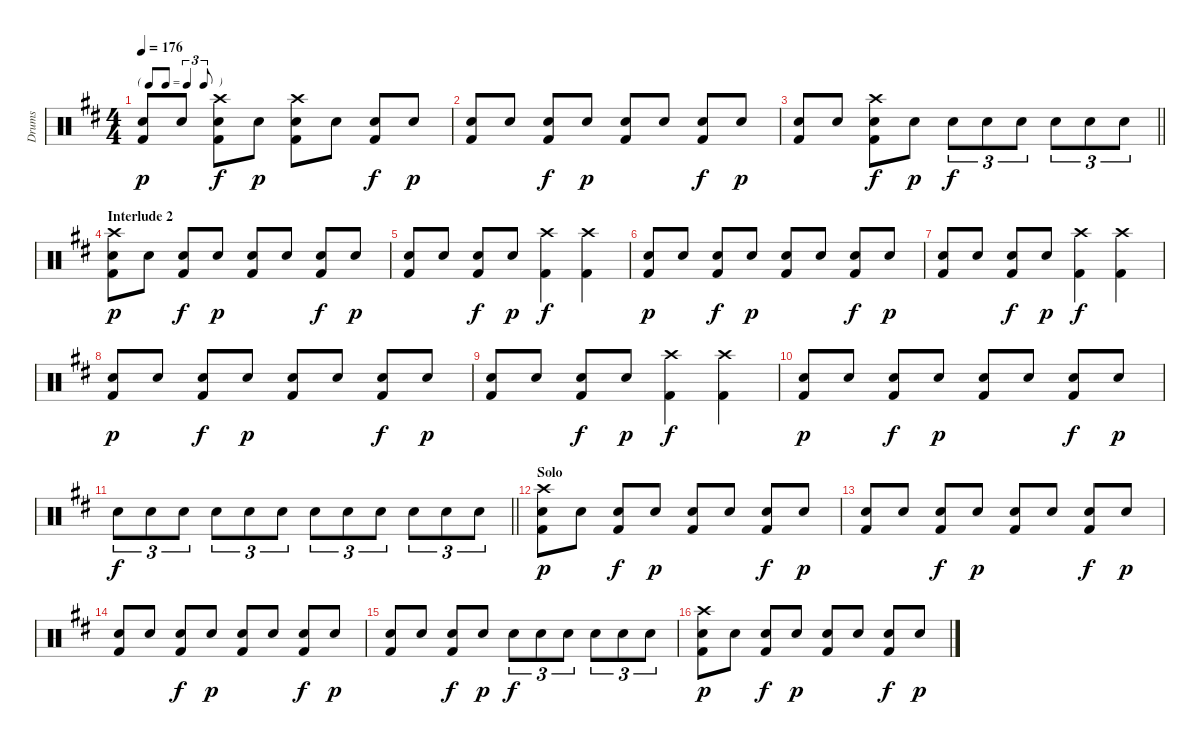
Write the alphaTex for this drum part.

\track ("Drums" "Drums") {instrument percussion}
\staff {score}
\articulation defaults
\ts (4 4)
\tf triplet8th
\tempo 176
\clef neutral
\ks d
("Snare (hit) 2" "Kick (hit) 2").8{dy p} "Snare (hit) 2".8 ("Crash high (hit)" "Snare (hit) 2" "Kick (hit) 2").8{dy f} "Snare (hit) 2".8{dy p} ("Crash high (hit)" "Snare (hit) 2" "Kick (hit) 2").8 "Snare (hit) 2".8 ("Snare (hit) 2" "Kick (hit) 2").8{dy f} "Snare (hit) 2".8{dy p} |
("Snare (hit) 2" "Kick (hit) 2").8 "Snare (hit) 2".8 ("Snare (hit) 2" "Kick (hit) 2").8{dy f} "Snare (hit) 2".8{dy p} ("Snare (hit) 2" "Kick (hit) 2").8 "Snare (hit) 2".8 ("Snare (hit) 2" "Kick (hit) 2").8{dy f} "Snare (hit) 2".8{dy p} |
\barLineRight lightlight
("Snare (hit) 2" "Kick (hit) 2").8 "Snare (hit) 2".8 ("Crash high (hit)" "Snare (hit) 2" "Kick (hit) 2").8{dy f} "Snare (hit) 2".8{dy p} "Snare (hit) 2".8{tu (3 2) dy f} "Snare (hit) 2".8{tu (3 2)} "Snare (hit) 2".8{tu (3 2)} "Snare (hit) 2".8{tu (3 2)} "Snare (hit) 2".8{tu (3 2)} "Snare (hit) 2".8{tu (3 2)} |
\section ("" "Interlude 2")
("Crash high (hit)" "Snare (hit) 2" "Kick (hit) 2").8{dy p} "Snare (hit) 2".8 ("Snare (hit) 2" "Kick (hit) 2").8{dy f} "Snare (hit) 2".8{dy p} ("Snare (hit) 2" "Kick (hit) 2").8 "Snare (hit) 2".8 ("Snare (hit) 2" "Kick (hit) 2").8{dy f} "Snare (hit) 2".8{dy p} |
("Snare (hit) 2" "Kick (hit) 2").8 "Snare (hit) 2".8 ("Snare (hit) 2" "Kick (hit) 2").8{dy f} "Snare (hit) 2".8{dy p} ("Crash high (hit)" "Kick (hit) 2").4{dy f} ("Crash high (hit)" "Kick (hit) 2").4 |
("Snare (hit) 2" "Kick (hit) 2").8{dy p} "Snare (hit) 2".8 ("Snare (hit) 2" "Kick (hit) 2").8{dy f} "Snare (hit) 2".8{dy p} ("Snare (hit) 2" "Kick (hit) 2").8 "Snare (hit) 2".8 ("Snare (hit) 2" "Kick (hit) 2").8{dy f} "Snare (hit) 2".8{dy p} |
("Snare (hit) 2" "Kick (hit) 2").8 "Snare (hit) 2".8 ("Snare (hit) 2" "Kick (hit) 2").8{dy f} "Snare (hit) 2".8{dy p} ("Crash high (hit)" "Kick (hit) 2").4{dy f} ("Crash high (hit)" "Kick (hit) 2").4 |
("Snare (hit) 2" "Kick (hit) 2").8{dy p} "Snare (hit) 2".8 ("Snare (hit) 2" "Kick (hit) 2").8{dy f} "Snare (hit) 2".8{dy p} ("Snare (hit) 2" "Kick (hit) 2").8 "Snare (hit) 2".8 ("Snare (hit) 2" "Kick (hit) 2").8{dy f} "Snare (hit) 2".8{dy p} |
("Snare (hit) 2" "Kick (hit) 2").8 "Snare (hit) 2".8 ("Snare (hit) 2" "Kick (hit) 2").8{dy f} "Snare (hit) 2".8{dy p} ("Crash high (hit)" "Kick (hit) 2").4{dy f} ("Crash high (hit)" "Kick (hit) 2").4 |
("Snare (hit) 2" "Kick (hit) 2").8{dy p} "Snare (hit) 2".8 ("Snare (hit) 2" "Kick (hit) 2").8{dy f} "Snare (hit) 2".8{dy p} ("Snare (hit) 2" "Kick (hit) 2").8 "Snare (hit) 2".8 ("Snare (hit) 2" "Kick (hit) 2").8{dy f} "Snare (hit) 2".8{dy p} |
\barLineRight lightlight "Snare (hit) 2".8{tu (3 2) dy f} "Snare (hit) 2".8{tu (3 2)} "Snare (hit) 2".8{tu (3 2)} "Snare (hit) 2".8{tu (3 2)} "Snare (hit) 2".8{tu (3 2)} "Snare (hit) 2".8{tu (3 2)} "Snare (hit) 2".8{tu (3 2)} "Snare (hit) 2".8{tu (3 2)} "Snare (hit) 2".8{tu (3 2)} "Snare (hit) 2".8{tu (3 2)} "Snare (hit) 2".8{tu (3 2)} "Snare (hit) 2".8{tu (3 2)}
|
\section ("" "Solo")
("Crash high (hit)" "Snare (hit) 2" "Kick (hit) 2").8{dy p} "Snare (hit) 2".8 ("Snare (hit) 2" "Kick (hit) 2").8{dy f} "Snare (hit) 2".8{dy p} ("Snare (hit) 2" "Kick (hit) 2").8 "Snare (hit) 2".8 ("Snare (hit) 2" "Kick (hit) 2").8{dy f} "Snare (hit) 2".8{dy p} |
("Snare (hit) 2" "Kick (hit) 2").8 "Snare (hit) 2".8 ("Snare (hit) 2" "Kick (hit) 2").8{dy f} "Snare (hit) 2".8{dy p} ("Snare (hit) 2" "Kick (hit) 2").8 "Snare (hit) 2".8 ("Snare (hit) 2" "Kick (hit) 2").8{dy f} "Snare (hit) 2".8{dy p} |
("Snare (hit) 2" "Kick (hit) 2").8 "Snare (hit) 2".8 ("Snare (hit) 2" "Kick (hit) 2").8{dy f} "Snare (hit) 2".8{dy p} ("Snare (hit) 2" "Kick (hit) 2").8 "Snare (hit) 2".8 ("Snare (hit) 2" "Kick (hit) 2").8{dy f} "Snare (hit) 2".8{dy p} |
("Snare (hit) 2" "Kick (hit) 2").8 "Snare (hit) 2".8 ("Snare (hit) 2" "Kick (hit) 2").8{dy f} "Snare (hit) 2".8{dy p} "Snare (hit) 2".8{tu (3 2) dy f} "Snare (hit) 2".8{tu (3 2)} "Snare (hit) 2".8{tu (3 2)} "Snare (hit) 2".8{tu (3 2)} "Snare (hit) 2".8{tu (3 2)} "Snare (hit) 2".8{tu (3 2)} |
("Crash high (hit)" "Snare (hit) 2" "Kick (hit) 2").8{dy p} "Snare (hit) 2".8 ("Snare (hit) 2" "Kick (hit) 2").8{dy f} "Snare (hit) 2".8{dy p} ("Snare (hit) 2" "Kick (hit) 2").8 "Snare (hit) 2".8 ("Snare (hit) 2" "Kick (hit) 2").8{dy f} "Snare (hit) 2".8{dy p}
